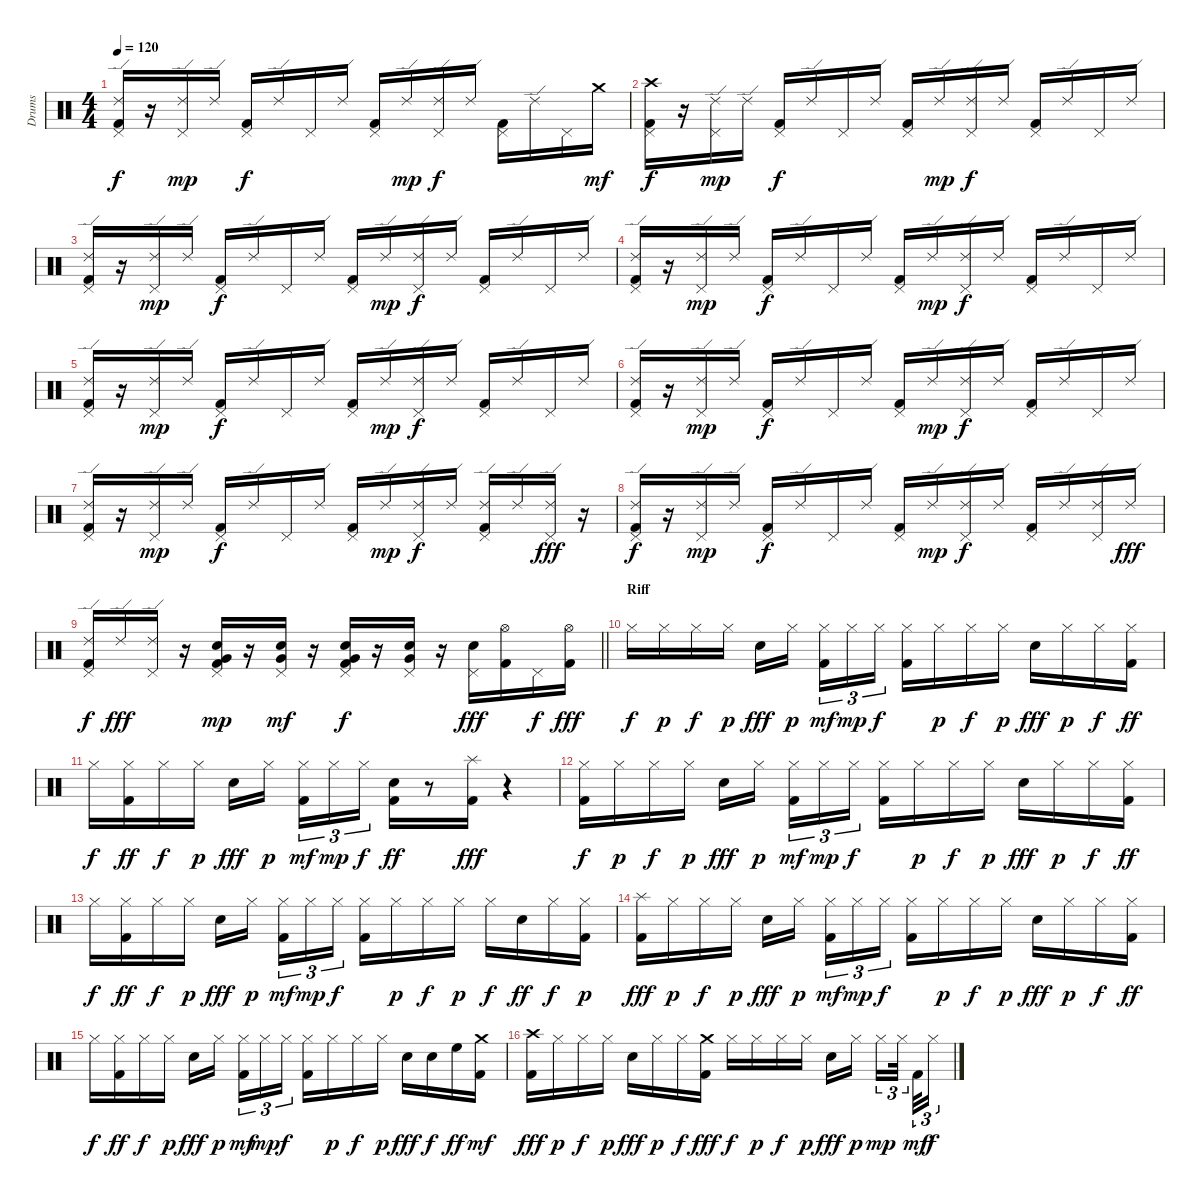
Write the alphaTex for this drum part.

\track ("Drums" "Drums") {instrument percussion}
\staff {score}
\articulation defaults
\ts (4 4)
\tempo 120
\clef neutral
\ks c
("Ride (edge) 2" "Kick (hit) 2" "Pedal Hi-Hat (hit)").16{dy f} r.16 ("Ride (edge) 2" "Pedal Hi-Hat (hit)").16{dy mp} "Ride (edge) 2".16 ("Kick (hit) 2" "Pedal Hi-Hat (hit)").16{dy f} "Ride (edge) 2".16 "Pedal Hi-Hat (hit)".16 "Ride (edge) 2".16 ("Kick (hit) 2" "Pedal Hi-Hat (hit)").16 "Ride (edge) 2".16{dy mp} ("Ride (edge) 2" "Pedal Hi-Hat (hit)").16{dy f} "Ride (edge) 2".16 ("Kick (hit) 2" "Pedal Hi-Hat (hit)").16 "Ride (edge) 2".16 "Pedal Hi-Hat (hit)".16 "Crash medium (hit)".16{dy mf} |
("Crash high (hit)" "Kick (hit) 2" "Pedal Hi-Hat (hit)").16{dy f} r.16 ("Ride (edge) 2" "Pedal Hi-Hat (hit)").16{dy mp} "Ride (edge) 2".16 ("Kick (hit) 2" "Pedal Hi-Hat (hit)").16{dy f} "Ride (edge) 2".16 "Pedal Hi-Hat (hit)".16 "Ride (edge) 2".16 ("Kick (hit) 2" "Pedal Hi-Hat (hit)").16 "Ride (edge) 2".16{dy mp} ("Ride (edge) 2" "Pedal Hi-Hat (hit)").16{dy f} "Ride (edge) 2".16 ("Kick (hit) 2" "Pedal Hi-Hat (hit)").16 "Ride (edge) 2".16 "Pedal Hi-Hat (hit)".16 "Ride (edge) 2".16 |
("Ride (edge) 2" "Kick (hit) 2" "Pedal Hi-Hat (hit)").16 r.16 ("Ride (edge) 2" "Pedal Hi-Hat (hit)").16{dy mp} "Ride (edge) 2".16 ("Kick (hit) 2" "Pedal Hi-Hat (hit)").16{dy f} "Ride (edge) 2".16 "Pedal Hi-Hat (hit)".16 "Ride (edge) 2".16 ("Kick (hit) 2" "Pedal Hi-Hat (hit)").16 "Ride (edge) 2".16{dy mp} ("Ride (edge) 2" "Pedal Hi-Hat (hit)").16{dy f} "Ride (edge) 2".16 ("Kick (hit) 2" "Pedal Hi-Hat (hit)").16 "Ride (edge) 2".16 "Pedal Hi-Hat (hit)".16 "Ride (edge) 2".16 |
("Ride (edge) 2" "Kick (hit) 2" "Pedal Hi-Hat (hit)").16 r.16 ("Ride (edge) 2" "Pedal Hi-Hat (hit)").16{dy mp} "Ride (edge) 2".16 ("Kick (hit) 2" "Pedal Hi-Hat (hit)").16{dy f} "Ride (edge) 2".16 "Pedal Hi-Hat (hit)".16 "Ride (edge) 2".16 ("Kick (hit) 2" "Pedal Hi-Hat (hit)").16 "Ride (edge) 2".16{dy mp} ("Ride (edge) 2" "Pedal Hi-Hat (hit)").16{dy f} "Ride (edge) 2".16 ("Kick (hit) 2" "Pedal Hi-Hat (hit)").16 "Ride (edge) 2".16 "Pedal Hi-Hat (hit)".16 "Ride (edge) 2".16 |
("Ride (edge) 2" "Kick (hit) 2" "Pedal Hi-Hat (hit)").16 r.16 ("Ride (edge) 2" "Pedal Hi-Hat (hit)").16{dy mp} "Ride (edge) 2".16 ("Kick (hit) 2" "Pedal Hi-Hat (hit)").16{dy f} "Ride (edge) 2".16 "Pedal Hi-Hat (hit)".16 "Ride (edge) 2".16 ("Kick (hit) 2" "Pedal Hi-Hat (hit)").16 "Ride (edge) 2".16{dy mp} ("Ride (edge) 2" "Pedal Hi-Hat (hit)").16{dy f} "Ride (edge) 2".16 ("Kick (hit) 2" "Pedal Hi-Hat (hit)").16 "Ride (edge) 2".16 "Pedal Hi-Hat (hit)".16 "Ride (edge) 2".16 |
("Ride (edge) 2" "Kick (hit) 2" "Pedal Hi-Hat (hit)").16 r.16 ("Ride (edge) 2" "Pedal Hi-Hat (hit)").16{dy mp} "Ride (edge) 2".16 ("Kick (hit) 2" "Pedal Hi-Hat (hit)").16{dy f} "Ride (edge) 2".16 "Pedal Hi-Hat (hit)".16 "Ride (edge) 2".16 ("Kick (hit) 2" "Pedal Hi-Hat (hit)").16 "Ride (edge) 2".16{dy mp} ("Ride (edge) 2" "Pedal Hi-Hat (hit)").16{dy f} "Ride (edge) 2".16 ("Kick (hit) 2" "Pedal Hi-Hat (hit)").16 "Ride (edge) 2".16 "Pedal Hi-Hat (hit)".16 "Ride (edge) 2".16 |
("Ride (edge) 2" "Kick (hit) 2" "Pedal Hi-Hat (hit)").16 r.16 ("Ride (edge) 2" "Pedal Hi-Hat (hit)").16{dy mp} "Ride (edge) 2".16 ("Kick (hit) 2" "Pedal Hi-Hat (hit)").16{dy f} "Ride (edge) 2".16 "Pedal Hi-Hat (hit)".16 "Ride (edge) 2".16 ("Kick (hit) 2" "Pedal Hi-Hat (hit)").16 "Ride (edge) 2".16{dy mp} ("Ride (edge) 2" "Pedal Hi-Hat (hit)").16{dy f} "Ride (edge) 2".16 ("Kick (hit) 2" "Pedal Hi-Hat (hit)" "Ride (edge) 2").16 "Ride (edge) 2".16 ("Pedal Hi-Hat (hit)" "Ride (edge) 2").16{dy fff} r.16 |
("Ride (edge) 2" "Kick (hit) 2" "Pedal Hi-Hat (hit)").16{dy f} r.16 ("Ride (edge) 2" "Pedal Hi-Hat (hit)").16{dy mp} "Ride (edge) 2".16 ("Kick (hit) 2" "Pedal Hi-Hat (hit)").16{dy f} "Ride (edge) 2".16 "Pedal Hi-Hat (hit)".16 "Ride (edge) 2".16 ("Kick (hit) 2" "Pedal Hi-Hat (hit)").16 "Ride (edge) 2".16{dy mp} ("Ride (edge) 2" "Pedal Hi-Hat (hit)").16{dy f} "Ride (edge) 2".16 ("Kick (hit) 2" "Pedal Hi-Hat (hit)").16 "Ride (edge) 2".16 ("Pedal Hi-Hat (hit)" "Ride (edge) 2").16 "Ride (edge) 2".16{dy fff} |
\barLineRight lightlight
("Kick (hit) 2" "Pedal Hi-Hat (hit)" "Ride (edge) 2").16{dy f} "Ride (edge) 2".16{dy fff} ("Pedal Hi-Hat (hit)" "Ride (edge) 2").16 r.16 ("Snare (hit) 2" "Very Low Tom (hit)" "Pedal Hi-Hat (hit)" "Kick (hit) 2").16{dy mp} r.16 ("Very Low Tom (hit)" "Snare (hit) 2" "Pedal Hi-Hat (hit)").16{dy mf} r.16 ("Snare (hit) 2" "Very Low Tom (hit)" "Pedal Hi-Hat (hit)" "Kick (hit) 2").16{dy f} r.16 ("Very Low Tom (hit)" "Snare (hit) 2" "Pedal Hi-Hat (hit)").16 r.16 ("Snare (hit) 2" "Pedal Hi-Hat (hit)").16{dy fff} ("Hi-Hat (open)" "Kick (hit) 2").16 "Pedal Hi-Hat (hit)".16{dy f} ("Hi-Hat (open)" "Kick (hit) 2").16{dy fff} |
\section ("" "Riff")
"Hi-Hat (closed)".16{dy f} "Hi-Hat (closed)".16{dy p} "Hi-Hat (closed)".16{dy f} "Hi-Hat (closed)".16{dy p} "Snare (hit) 2".16{dy fff} "Hi-Hat (closed)".16{dy p beam splitsecondary} ("Hi-Hat (closed)" "Kick (hit) 2").16{tu (3 2) dy mf} "Hi-Hat (closed)".16{tu (3 2) dy mp} "Hi-Hat (closed)".16{tu (3 2) dy f} ("Hi-Hat (closed)" "Kick (hit) 2").16 "Hi-Hat (closed)".16{dy p} "Hi-Hat (closed)".16{dy f} "Hi-Hat (closed)".16{dy p} "Snare (hit) 2".16{dy fff} "Hi-Hat (closed)".16{dy p} "Hi-Hat (closed)".16{dy f} ("Hi-Hat (closed)" "Kick (hit) 2").16{dy ff} |
"Hi-Hat (closed)".16{dy f} ("Hi-Hat (closed)" "Kick (hit) 2").16{dy ff} "Hi-Hat (closed)".16{dy f} "Hi-Hat (closed)".16{dy p} "Snare (hit) 2".16{dy fff} "Hi-Hat (closed)".16{dy p beam splitsecondary} ("Hi-Hat (closed)" "Kick (hit) 2").16{tu (3 2) dy mf} "Hi-Hat (closed)".16{tu (3 2) dy mp} "Hi-Hat (closed)".16{tu (3 2) dy f} ("Snare (hit) 2" "Kick (hit) 2").16{dy ff} r.8 ("Kick (hit) 2" "Splash (hit)").16{dy fff} r.4 |
("Hi-Hat (closed)" "Kick (hit) 2").16{dy f} "Hi-Hat (closed)".16{dy p} "Hi-Hat (closed)".16{dy f} "Hi-Hat (closed)".16{dy p} "Snare (hit) 2".16{dy fff} "Hi-Hat (closed)".16{dy p beam splitsecondary} ("Hi-Hat (closed)" "Kick (hit) 2").16{tu (3 2) dy mf} "Hi-Hat (closed)".16{tu (3 2) dy mp} "Hi-Hat (closed)".16{tu (3 2) dy f} ("Hi-Hat (closed)" "Kick (hit) 2").16 "Hi-Hat (closed)".16{dy p} "Hi-Hat (closed)".16{dy f} "Hi-Hat (closed)".16{dy p} "Snare (hit) 2".16{dy fff} "Hi-Hat (closed)".16{dy p} "Hi-Hat (closed)".16{dy f} ("Hi-Hat (closed)" "Kick (hit) 2").16{dy ff} |
"Hi-Hat (closed)".16{dy f} ("Hi-Hat (closed)" "Kick (hit) 2").16{dy ff} "Hi-Hat (closed)".16{dy f} "Hi-Hat (closed)".16{dy p} "Snare (hit) 2".16{dy fff} "Hi-Hat (closed)".16{dy p beam splitsecondary} ("Hi-Hat (closed)" "Kick (hit) 2").16{tu (3 2) dy mf} "Hi-Hat (closed)".16{tu (3 2) dy mp} "Hi-Hat (closed)".16{tu (3 2) dy f} ("Hi-Hat (closed)" "Kick (hit) 2").16 "Hi-Hat (closed)".16{dy p} "Hi-Hat (closed)".16{dy f} "Hi-Hat (closed)".16{dy p} "Hi-Hat (closed)".16{dy f} "Snare (hit) 2".16{dy ff} "Hi-Hat (closed)".16{dy f} ("Kick (hit) 2" "Hi-Hat (closed)").16{dy p} |
("Kick (hit) 2" "Splash (hit)").16{dy fff} "Hi-Hat (closed)".16{dy p} "Hi-Hat (closed)".16{dy f} "Hi-Hat (closed)".16{dy p} "Snare (hit) 2".16{dy fff} "Hi-Hat (closed)".16{dy p beam splitsecondary} ("Hi-Hat (closed)" "Kick (hit) 2").16{tu (3 2) dy mf} "Hi-Hat (closed)".16{tu (3 2) dy mp} "Hi-Hat (closed)".16{tu (3 2) dy f} ("Hi-Hat (closed)" "Kick (hit) 2").16 "Hi-Hat (closed)".16{dy p} "Hi-Hat (closed)".16{dy f} "Hi-Hat (closed)".16{dy p} "Snare (hit) 2".16{dy fff} "Hi-Hat (closed)".16{dy p} "Hi-Hat (closed)".16{dy f} ("Hi-Hat (closed)" "Kick (hit) 2").16{dy ff} |
"Hi-Hat (closed)".16{dy f} ("Hi-Hat (closed)" "Kick (hit) 2").16{dy ff} "Hi-Hat (closed)".16{dy f} "Hi-Hat (closed)".16{dy p} "Snare (hit) 2".16{dy fff} "Hi-Hat (closed)".16{dy p beam splitsecondary} ("Hi-Hat (closed)" "Kick (hit) 2").16{tu (3 2) dy mf} "Hi-Hat (closed)".16{tu (3 2) dy mp} "Hi-Hat (closed)".16{tu (3 2) dy f} ("Hi-Hat (closed)" "Kick (hit) 2").16 "Hi-Hat (closed)".16{dy p} "Hi-Hat (closed)".16{dy f} "Hi-Hat (closed)".16{dy p} "Snare (hit) 2".16{dy fff} "Snare (hit) 2".16{dy f} "High Floor Tom (hit)".16{dy ff} ("Kick (hit) 2" "Crash medium (hit)").16{dy mf} |
("Kick (hit) 2" "Crash high (hit)").16{dy fff} "Hi-Hat (closed)".16{dy p} "Hi-Hat (closed)".16{dy f} "Hi-Hat (closed)".16{dy p} "Snare (hit) 2".16{dy fff} "Hi-Hat (closed)".16{dy p} "Hi-Hat (closed)".16{dy f} ("Kick (hit) 2" "Crash medium (hit)").16{dy fff} "Hi-Hat (closed)".16{dy f} "Hi-Hat (closed)".16{dy p} "Hi-Hat (closed)".16{dy f} "Hi-Hat (closed)".16{dy p} "Snare (hit) 2".16{dy fff} "Hi-Hat (closed)".16{dy p beam splitsecondary} "Hi-Hat (closed)".16{tu (3 2) dy mp} "Hi-Hat (closed)".32{tu (3 2) beam splitsecondary} "Kick (hit) 2".32{tu (3 2) dy mf} "Hi-Hat (closed)".16{tu (3 2) dy f}
